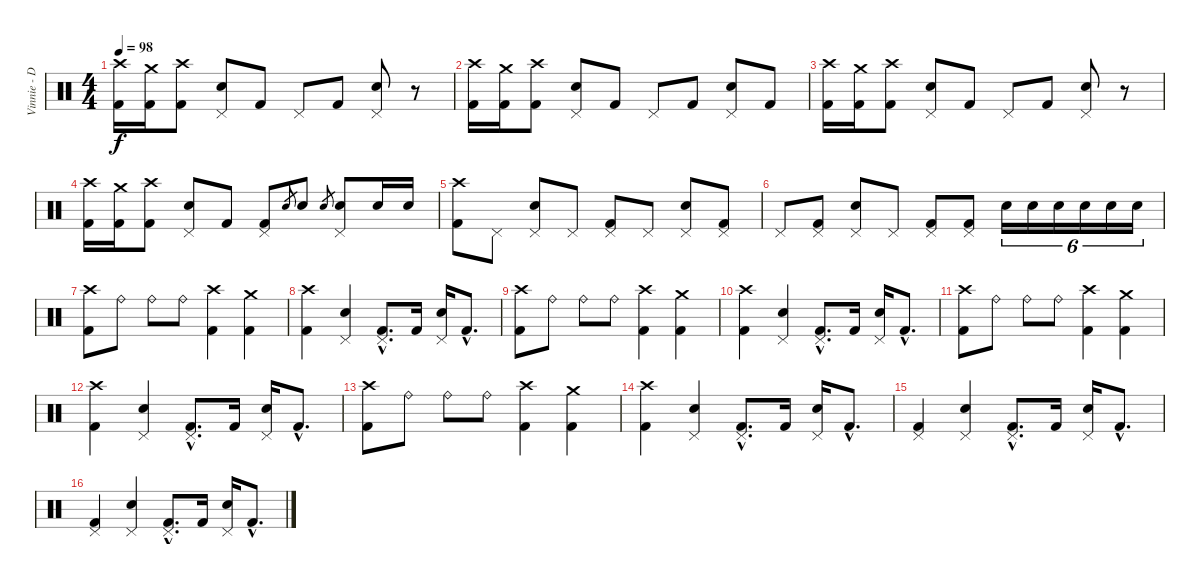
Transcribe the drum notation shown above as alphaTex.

\track ("Vinnie - Drums" "Vinnie - D") {instrument percussion}
\staff {score}
\articulation defaults
\ts (4 4)
\tempo 98
\clef neutral
\ks c
("Crash high (hit)" "Kick (hit) 2").16{dy f} ("Crash medium (hit)" "Kick (hit) 2").16 ("Crash high (hit)" "Kick (hit) 2").8 ("Pedal Hi-Hat (hit)" "Electric Snare (hit)").8 "Kick (hit) 2".8 "Pedal Hi-Hat (hit)".8 "Kick (hit) 2".8 ("Pedal Hi-Hat (hit)" "Electric Snare (hit)").8 r.8 |
("Crash high (hit)" "Kick (hit) 2").16 ("Crash medium (hit)" "Kick (hit) 2").16 ("Crash high (hit)" "Kick (hit) 2").8 ("Pedal Hi-Hat (hit)" "Electric Snare (hit)").8 "Kick (hit) 2".8 "Pedal Hi-Hat (hit)".8 "Kick (hit) 2".8 ("Pedal Hi-Hat (hit)" "Electric Snare (hit)").8 "Kick (hit) 2".8 |
("Crash high (hit)" "Kick (hit) 2").16 ("Crash medium (hit)" "Kick (hit) 2").16 ("Crash high (hit)" "Kick (hit) 2").8 ("Pedal Hi-Hat (hit)" "Electric Snare (hit)").8 "Kick (hit) 2".8 "Pedal Hi-Hat (hit)".8 "Kick (hit) 2".8 ("Pedal Hi-Hat (hit)" "Electric Snare (hit)").8 r.8 |
("Crash high (hit)" "Kick (hit) 2").16 ("Crash medium (hit)" "Kick (hit) 2").16 ("Crash high (hit)" "Kick (hit) 2").8 ("Pedal Hi-Hat (hit)" "Electric Snare (hit)").8 "Kick (hit) 2".8 ("Pedal Hi-Hat (hit)" "Kick (hit) 2").8 "Electric Snare (hit)".8{gr} "Electric Snare (hit)".8 "Electric Snare (hit)".8{gr} ("Pedal Hi-Hat (hit)" "Electric Snare (hit)").8 "Electric Snare (hit)".16 "Electric Snare (hit)".16 |
("Crash high (hit)" "Kick (hit) 2").8 "Pedal Hi-Hat (hit)".8 ("Pedal Hi-Hat (hit)" "Electric Snare (hit)").8 "Pedal Hi-Hat (hit)".8 ("Pedal Hi-Hat (hit)" "Kick (hit) 2").8 "Pedal Hi-Hat (hit)".8 ("Pedal Hi-Hat (hit)" "Electric Snare (hit)").8 ("Pedal Hi-Hat (hit)" "Kick (hit) 2").8 |
"Pedal Hi-Hat (hit)".8 ("Pedal Hi-Hat (hit)" "Kick (hit) 2").8 ("Pedal Hi-Hat (hit)" "Electric Snare (hit)").8 "Pedal Hi-Hat (hit)".8 ("Pedal Hi-Hat (hit)" "Kick (hit) 2").8 ("Pedal Hi-Hat (hit)" "Kick (hit) 2").8 "Electric Snare (hit)".16{tu (6 4)} "Electric Snare (hit)".16{tu (6 4)} "Electric Snare (hit)".16{tu (6 4)} "Electric Snare (hit)".16{tu (6 4)} "Electric Snare (hit)".16{tu (6 4)} "Electric Snare (hit)".16{tu (6 4)} |
("Crash high (hit)" "Kick (hit) 2").8 "Ride (bell)".8 "Ride (bell)".8 "Ride (bell)".8 ("Crash high (hit)" "Kick (hit) 2").4 ("Crash medium (hit)" "Kick (hit) 2").4 |
("Crash high (hit)" "Kick (hit) 2").4 ("Pedal Hi-Hat (hit)" "Electric Snare (hit)").4 ("Pedal Hi-Hat (hit)"{hac} "Kick (hit) 2"{hac}).8{d} "Kick (hit) 2".16 ("Pedal Hi-Hat (hit)" "Electric Snare (hit)").16 "Kick (hit) 2"{hac}.8{d} |
("Crash high (hit)" "Kick (hit) 2").8 "Ride (bell)".8 "Ride (bell)".8 "Ride (bell)".8 ("Crash high (hit)" "Kick (hit) 2").4 ("Crash medium (hit)" "Kick (hit) 2").4 |
("Crash high (hit)" "Kick (hit) 2").4 ("Pedal Hi-Hat (hit)" "Electric Snare (hit)").4 ("Pedal Hi-Hat (hit)"{hac} "Kick (hit) 2"{hac}).8{d} "Kick (hit) 2".16 ("Pedal Hi-Hat (hit)" "Electric Snare (hit)").16 "Kick (hit) 2"{hac}.8{d} |
("Crash high (hit)" "Kick (hit) 2").8 "Ride (bell)".8 "Ride (bell)".8 "Ride (bell)".8 ("Crash high (hit)" "Kick (hit) 2").4 ("Crash medium (hit)" "Kick (hit) 2").4 |
("Crash high (hit)" "Kick (hit) 2").4 ("Pedal Hi-Hat (hit)" "Electric Snare (hit)").4 ("Pedal Hi-Hat (hit)"{hac} "Kick (hit) 2"{hac}).8{d} "Kick (hit) 2".16 ("Pedal Hi-Hat (hit)" "Electric Snare (hit)").16 "Kick (hit) 2"{hac}.8{d} |
("Crash high (hit)" "Kick (hit) 2").8 "Ride (bell)".8 "Ride (bell)".8 "Ride (bell)".8 ("Crash high (hit)" "Kick (hit) 2").4 ("Crash medium (hit)" "Kick (hit) 2").4 |
("Crash high (hit)" "Kick (hit) 2").4 ("Pedal Hi-Hat (hit)" "Electric Snare (hit)").4 ("Pedal Hi-Hat (hit)"{hac} "Kick (hit) 2"{hac}).8{d} "Kick (hit) 2".16 ("Pedal Hi-Hat (hit)" "Electric Snare (hit)").16 "Kick (hit) 2"{hac}.8{d} |
("Pedal Hi-Hat (hit)" "Kick (hit) 2").4 ("Pedal Hi-Hat (hit)" "Electric Snare (hit)").4 ("Pedal Hi-Hat (hit)"{hac} "Kick (hit) 2"{hac}).8{d} "Kick (hit) 2".16 ("Pedal Hi-Hat (hit)" "Electric Snare (hit)").16 "Kick (hit) 2"{hac}.8{d} |
("Pedal Hi-Hat (hit)" "Kick (hit) 2").4 ("Pedal Hi-Hat (hit)" "Electric Snare (hit)").4 ("Pedal Hi-Hat (hit)"{hac} "Kick (hit) 2"{hac}).8{d} "Kick (hit) 2".16 ("Pedal Hi-Hat (hit)" "Electric Snare (hit)").16 "Kick (hit) 2"{hac}.8{d}
